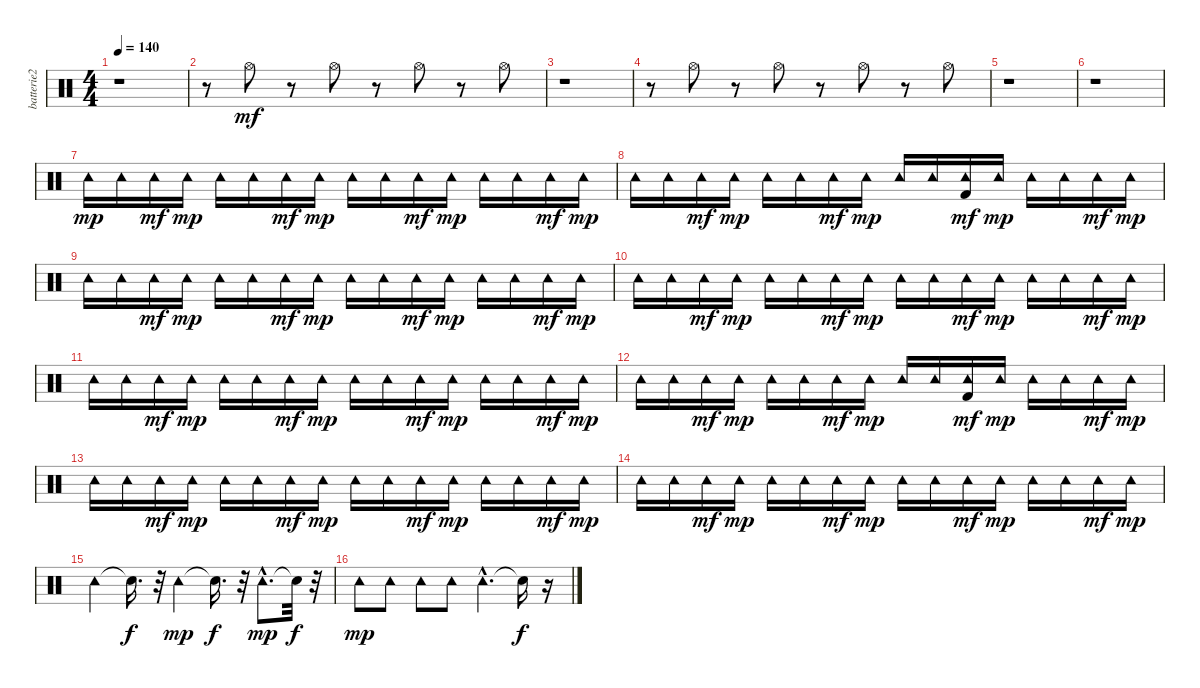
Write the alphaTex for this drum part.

\track ("batterie2" "batterie2") {instrument percussion}
\staff {score}
\articulation defaults
\ts (4 4)
\tempo 140
\clef neutral
\ks c
r.1{dy mf} |
r.8 "Hi-Hat (open)".8 r.8 "Hi-Hat (open)".8 r.8 "Hi-Hat (open)".8 r.8 "Hi-Hat (open)".8 |
r.1 |
r.8 "Hi-Hat (open)".8 r.8 "Hi-Hat (open)".8 r.8 "Hi-Hat (open)".8 r.8 "Hi-Hat (open)".8 |
r.1 |
r.1 |
"Tambourine (hit)".16{dy mp} "Tambourine (hit)".16 "Tambourine (hit)".16{dy mf} "Tambourine (hit)".16{dy mp} "Tambourine (hit)".16 "Tambourine (hit)".16 "Tambourine (hit)".16{dy mf} "Tambourine (hit)".16{dy mp} "Tambourine (hit)".16 "Tambourine (hit)".16 "Tambourine (hit)".16{dy mf} "Tambourine (hit)".16{dy mp} "Tambourine (hit)".16 "Tambourine (hit)".16 "Tambourine (hit)".16{dy mf} "Tambourine (hit)".16{dy mp} |
"Tambourine (hit)".16 "Tambourine (hit)".16 "Tambourine (hit)".16{dy mf} "Tambourine (hit)".16{dy mp} "Tambourine (hit)".16 "Tambourine (hit)".16 "Tambourine (hit)".16{dy mf} "Tambourine (hit)".16{dy mp} "Tambourine (hit)".16 "Tambourine (hit)".16 ("Kick (hit) 2" "Tambourine (hit)").16{dy mf} "Tambourine (hit)".16{dy mp} "Tambourine (hit)".16 "Tambourine (hit)".16 "Tambourine (hit)".16{dy mf} "Tambourine (hit)".16{dy mp} |
"Tambourine (hit)".16 "Tambourine (hit)".16 "Tambourine (hit)".16{dy mf} "Tambourine (hit)".16{dy mp} "Tambourine (hit)".16 "Tambourine (hit)".16 "Tambourine (hit)".16{dy mf} "Tambourine (hit)".16{dy mp} "Tambourine (hit)".16 "Tambourine (hit)".16 "Tambourine (hit)".16{dy mf} "Tambourine (hit)".16{dy mp} "Tambourine (hit)".16 "Tambourine (hit)".16 "Tambourine (hit)".16{dy mf} "Tambourine (hit)".16{dy mp} |
"Tambourine (hit)".16 "Tambourine (hit)".16 "Tambourine (hit)".16{dy mf} "Tambourine (hit)".16{dy mp} "Tambourine (hit)".16 "Tambourine (hit)".16 "Tambourine (hit)".16{dy mf} "Tambourine (hit)".16{dy mp} "Tambourine (hit)".16 "Tambourine (hit)".16 "Tambourine (hit)".16{dy mf} "Tambourine (hit)".16{dy mp} "Tambourine (hit)".16 "Tambourine (hit)".16 "Tambourine (hit)".16{dy mf} "Tambourine (hit)".16{dy mp} |
"Tambourine (hit)".16 "Tambourine (hit)".16 "Tambourine (hit)".16{dy mf} "Tambourine (hit)".16{dy mp} "Tambourine (hit)".16 "Tambourine (hit)".16 "Tambourine (hit)".16{dy mf} "Tambourine (hit)".16{dy mp} "Tambourine (hit)".16 "Tambourine (hit)".16 "Tambourine (hit)".16{dy mf} "Tambourine (hit)".16{dy mp} "Tambourine (hit)".16 "Tambourine (hit)".16 "Tambourine (hit)".16{dy mf} "Tambourine (hit)".16{dy mp} |
"Tambourine (hit)".16 "Tambourine (hit)".16 "Tambourine (hit)".16{dy mf} "Tambourine (hit)".16{dy mp} "Tambourine (hit)".16 "Tambourine (hit)".16 "Tambourine (hit)".16{dy mf} "Tambourine (hit)".16{dy mp} "Tambourine (hit)".16 "Tambourine (hit)".16 ("Kick (hit) 2" "Tambourine (hit)").16{dy mf} "Tambourine (hit)".16{dy mp} "Tambourine (hit)".16 "Tambourine (hit)".16 "Tambourine (hit)".16{dy mf} "Tambourine (hit)".16{dy mp} |
"Tambourine (hit)".16 "Tambourine (hit)".16 "Tambourine (hit)".16{dy mf} "Tambourine (hit)".16{dy mp} "Tambourine (hit)".16 "Tambourine (hit)".16 "Tambourine (hit)".16{dy mf} "Tambourine (hit)".16{dy mp} "Tambourine (hit)".16 "Tambourine (hit)".16 "Tambourine (hit)".16{dy mf} "Tambourine (hit)".16{dy mp} "Tambourine (hit)".16 "Tambourine (hit)".16 "Tambourine (hit)".16{dy mf} "Tambourine (hit)".16{dy mp} |
"Tambourine (hit)".16 "Tambourine (hit)".16 "Tambourine (hit)".16{dy mf} "Tambourine (hit)".16{dy mp} "Tambourine (hit)".16 "Tambourine (hit)".16 "Tambourine (hit)".16{dy mf} "Tambourine (hit)".16{dy mp} "Tambourine (hit)".16 "Tambourine (hit)".16 "Tambourine (hit)".16{dy mf} "Tambourine (hit)".16{dy mp} "Tambourine (hit)".16 "Tambourine (hit)".16 "Tambourine (hit)".16{dy mf} "Tambourine (hit)".16{dy mp} |
"Tambourine (hit)".4 "Snare (hit)"{t}.16{d dy f} r.32 "Tambourine (hit)".4{dy mp} "Snare (hit)"{t}.16{d dy f} r.32 "Tambourine (hit)"{hac}.8{d dy mp} "Snare (hit)"{t}.32{dy f} r.32 |
"Tambourine (hit)".8{dy mp} "Tambourine (hit)".8 "Tambourine (hit)".8 "Tambourine (hit)".8 "Tambourine (hit)"{hac}.4{d} "Snare (hit)"{t}.16{dy f} r.16
